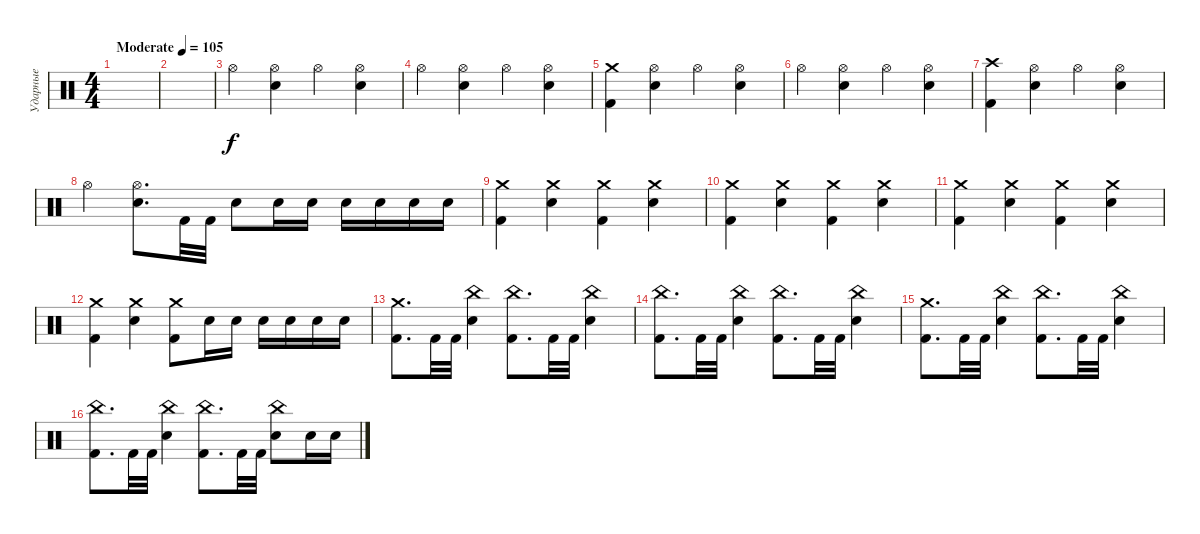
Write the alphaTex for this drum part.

\track ("Ударные" "Ударные") {instrument percussion}
\staff {score}
\articulation defaults
\ts (4 4)
\tempo (105 "Moderate")
\clef neutral
\ks c
|
|
"Hi-Hat (open)".4 ("Hi-Hat (open)" "Electric Snare (hit)").4 "Hi-Hat (open)".4 ("Hi-Hat (open)" "Electric Snare (hit)").4 |
"Hi-Hat (open)".4 ("Hi-Hat (open)" "Electric Snare (hit)").4 "Hi-Hat (open)".4 ("Hi-Hat (open)" "Electric Snare (hit)").4 |
("Crash medium (hit)" "Kick (hit) 2").4 ("Hi-Hat (open)" "Electric Snare (hit)").4 "Hi-Hat (open)".4 ("Hi-Hat (open)" "Electric Snare (hit)").4 |
"Hi-Hat (open)".4 ("Hi-Hat (open)" "Electric Snare (hit)").4 "Hi-Hat (open)".4 ("Hi-Hat (open)" "Electric Snare (hit)").4 |
("Crash high (hit)" "Kick (hit) 2").4 ("Hi-Hat (open)" "Electric Snare (hit)").4 "Hi-Hat (open)".4 ("Hi-Hat (open)" "Electric Snare (hit)").4 |
"Hi-Hat (open)".4 ("Hi-Hat (open)" "Electric Snare (hit)").8{d} "Kick (hit) 2".32 "Kick (hit) 2".32 "Electric Snare (hit)".8 "Electric Snare (hit)".16 "Electric Snare (hit)".16 "Electric Snare (hit)".16 "Electric Snare (hit)".16 "Electric Snare (hit)".16 "Electric Snare (hit)".16 |
("Crash medium (hit)" "Kick (hit) 2").4 ("Crash medium (hit)" "Electric Snare (hit)").4 ("Crash medium (hit)" "Kick (hit) 2").4 ("Crash medium (hit)" "Electric Snare (hit)").4 |
("Crash medium (hit)" "Kick (hit) 2").4 ("Crash medium (hit)" "Electric Snare (hit)").4 ("Crash medium (hit)" "Kick (hit) 2").4 ("Crash medium (hit)" "Electric Snare (hit)").4 |
("Crash medium (hit)" "Kick (hit) 2").4 ("Crash medium (hit)" "Electric Snare (hit)").4 ("Crash medium (hit)" "Kick (hit) 2").4 ("Crash medium (hit)" "Electric Snare (hit)").4 |
("Crash medium (hit)" "Kick (hit) 2").4 ("Crash medium (hit)" "Electric Snare (hit)").4 ("Crash medium (hit)" "Kick (hit) 2").8 "Electric Snare (hit)".16 "Electric Snare (hit)".16 "Electric Snare (hit)".16 "Electric Snare (hit)".16 "Electric Snare (hit)".16 "Electric Snare (hit)".16 |
("Crash medium (hit)" "Kick (hit) 2").8{d} "Kick (hit) 2".32 "Kick (hit) 2".32 ("China (hit)" "Electric Snare (hit)").4 ("China (hit)" "Kick (hit) 2").8{d} "Kick (hit) 2".32 "Kick (hit) 2".32 ("China (hit)" "Electric Snare (hit)").4 |
("China (hit)" "Kick (hit) 2").8{d} "Kick (hit) 2".32 "Kick (hit) 2".32 ("China (hit)" "Electric Snare (hit)").4 ("China (hit)" "Kick (hit) 2").8{d} "Kick (hit) 2".32 "Kick (hit) 2".32 ("China (hit)" "Electric Snare (hit)").4 |
("Crash medium (hit)" "Kick (hit) 2").8{d} "Kick (hit) 2".32 "Kick (hit) 2".32 ("China (hit)" "Electric Snare (hit)").4 ("China (hit)" "Kick (hit) 2").8{d} "Kick (hit) 2".32 "Kick (hit) 2".32 ("China (hit)" "Electric Snare (hit)").4 |
("China (hit)" "Kick (hit) 2").8{d} "Kick (hit) 2".32 "Kick (hit) 2".32 ("China (hit)" "Electric Snare (hit)").4 ("China (hit)" "Kick (hit) 2").8{d} "Kick (hit) 2".32 "Kick (hit) 2".32 ("China (hit)" "Electric Snare (hit)").8 "Electric Snare (hit)".16 "Electric Snare (hit)".16
